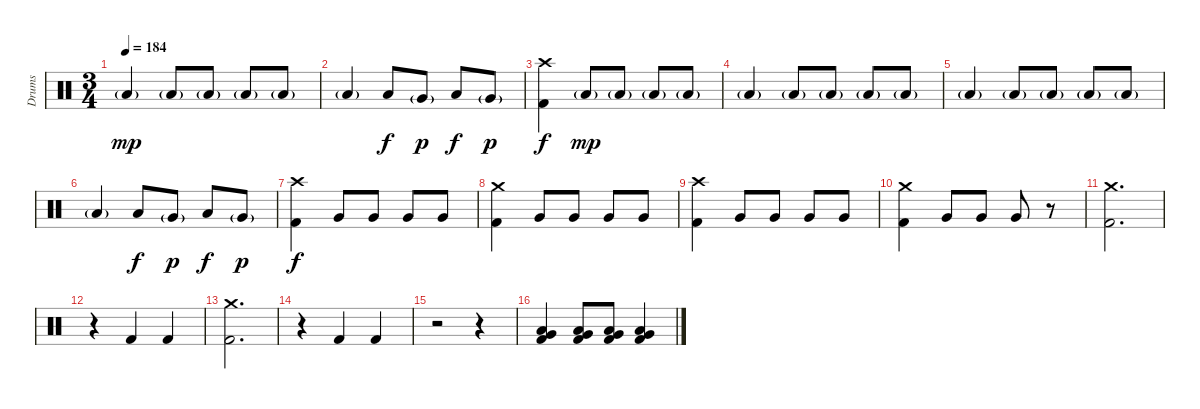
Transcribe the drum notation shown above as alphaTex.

\track ("Drums" "Drums") {instrument percussion}
\staff {score}
\articulation defaults
\ts (3 4)
\tempo 184
\clef neutral
\ks c "Low Floor Tom (hit)"{g}.4{dy mp} "Low Floor Tom (hit)"{g}.8 "Low Floor Tom (hit)"{g}.8 "Low Floor Tom (hit)"{g}.8 "Low Floor Tom (hit)"{g}.8
|
"Low Floor Tom (hit)"{g}.4 "Low Tom (hit)".8{dy f} "Very Low Tom (hit)"{g}.8{dy p} "Low Floor Tom (hit)".8{dy f} "Very Low Tom (hit)"{g}.8{dy p} |
("Crash high (hit)" "Kick (hit) 2").4{dy f} "Low Floor Tom (hit)"{g}.8{dy mp} "Low Floor Tom (hit)"{g}.8 "Low Floor Tom (hit)"{g}.8 "Low Floor Tom (hit)"{g}.8 |
"Low Floor Tom (hit)"{g}.4 "Low Floor Tom (hit)"{g}.8 "Low Floor Tom (hit)"{g}.8 "Low Floor Tom (hit)"{g}.8 "Low Floor Tom (hit)"{g}.8 |
"Low Floor Tom (hit)"{g}.4 "Low Floor Tom (hit)"{g}.8 "Low Floor Tom (hit)"{g}.8 "Low Floor Tom (hit)"{g}.8 "Low Floor Tom (hit)"{g}.8 |
"Low Floor Tom (hit)"{g}.4 "Low Tom (hit)".8{dy f} "Very Low Tom (hit)"{g}.8{dy p} "Low Floor Tom (hit)".8{dy f} "Very Low Tom (hit)"{g}.8{dy p} |
("Crash high (hit)" "Kick (hit) 2").4{dy f} "Very Low Tom (hit)".8 "Very Low Tom (hit)".8 "Very Low Tom (hit)".8 "Very Low Tom (hit)".8 |
("Crash medium (hit)" "Kick (hit) 2").4 "Very Low Tom (hit)".8 "Very Low Tom (hit)".8 "Very Low Tom (hit)".8 "Very Low Tom (hit)".8 |
("Crash high (hit)" "Kick (hit) 2").4 "Very Low Tom (hit)".8 "Very Low Tom (hit)".8 "Very Low Tom (hit)".8 "Very Low Tom (hit)".8 |
("Crash medium (hit)" "Kick (hit) 2").4 "Very Low Tom (hit)".8 "Very Low Tom (hit)".8 "Very Low Tom (hit)".8 r.8 |
("Crash medium (hit)" "Kick (hit) 2").2{d} |
r.4 "Kick (hit) 2".4 "Kick (hit) 2".4 |
("Crash medium (hit)" "Kick (hit) 2").2{d} |
r.4 "Kick (hit) 2".4 "Kick (hit) 2".4 |
r.2 r.4 |
("Very Low Tom (hit)" "Low Floor Tom (hit)" "Kick (hit) 2").4 ("Very Low Tom (hit)" "Low Floor Tom (hit)" "Kick (hit) 2").8 ("Very Low Tom (hit)" "Low Floor Tom (hit)" "Kick (hit) 2").8 ("Very Low Tom (hit)" "Low Floor Tom (hit)" "Kick (hit) 2").4
